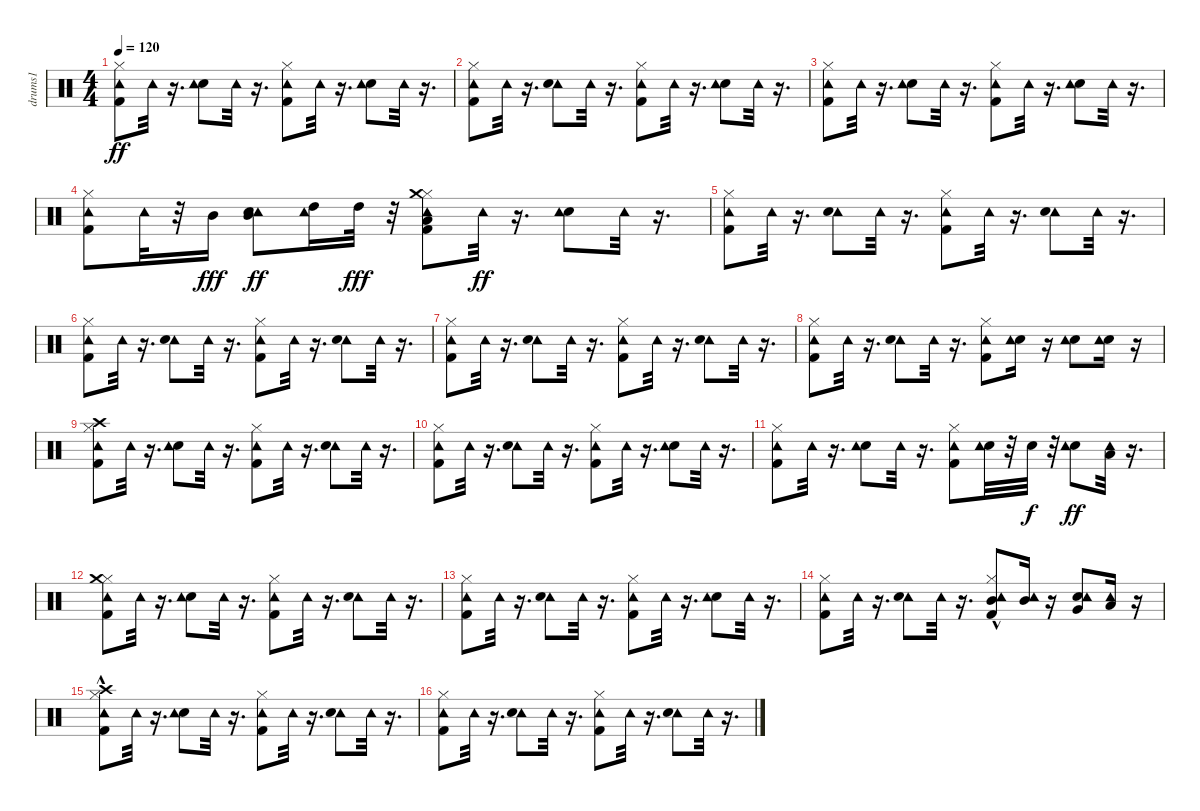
\track ("drums1" "drums1") {instrument percussion}
\staff {score}
\articulation defaults
\ts (4 4)
\tempo 120
\clef neutral
\ks c
("Kick (hit) 2" "Tambourine (hit)" "Hi-Hat (closed)").8{dy ff} "Tambourine (hit)".32 r.16{d} ("Snare (hit) 2" "Tambourine (hit)").8 "Tambourine (hit)".32 r.16{d} ("Kick (hit) 2" "Tambourine (hit)" "Hi-Hat (closed)").8 "Tambourine (hit)".32 r.16{d} ("Snare (hit) 2" "Tambourine (hit)").8 "Tambourine (hit)".32 r.16{d} |
("Tambourine (hit)" "Hi-Hat (closed)" "Kick (hit) 2").8 "Tambourine (hit)".32 r.16{d} ("Tambourine (hit)" "Snare (hit) 2").8 "Tambourine (hit)".32 r.16{d} ("Kick (hit) 2" "Tambourine (hit)" "Hi-Hat (closed)").8 "Tambourine (hit)".32 r.16{d} ("Snare (hit) 2" "Tambourine (hit)").8 "Tambourine (hit)".32 r.16{d} |
("Kick (hit) 2" "Tambourine (hit)" "Hi-Hat (closed)").8 "Tambourine (hit)".32 r.16{d} ("Snare (hit) 2" "Tambourine (hit)").8 "Tambourine (hit)".32 r.16{d} ("Kick (hit) 2" "Tambourine (hit)" "Hi-Hat (closed)").8 "Tambourine (hit)".32 r.16{d} ("Snare (hit) 2" "Tambourine (hit)").8 "Tambourine (hit)".32 r.16{d} |
("Kick (hit) 2" "Tambourine (hit)" "Hi-Hat (closed)").8 "Tambourine (hit)".32 r.32 "Mid Tom (hit)".16{dy fff} ("Mid Tom (hit)" "Tambourine (hit)" "Snare (hit) 2").8{dy ff} ("High Tom (hit)" "Tambourine (hit)").16 "High Tom (hit)".32{dy fff} r.32 ("Low Floor Tom (hit)" "Kick (hit) 2" "Tambourine (hit)" "Hi-Hat (closed)" "Crash medium (hit)").8 "Tambourine (hit)".32{dy ff} r.16{d} ("Snare (hit) 2" "Tambourine (hit)").8 "Tambourine (hit)".32 r.16{d} |
("Tambourine (hit)" "Hi-Hat (closed)" "Kick (hit) 2").8 "Tambourine (hit)".32 r.16{d} ("Tambourine (hit)" "Snare (hit) 2").8 "Tambourine (hit)".32 r.16{d} ("Tambourine (hit)" "Hi-Hat (closed)" "Kick (hit) 2").8 "Tambourine (hit)".32 r.16{d} ("Tambourine (hit)" "Snare (hit) 2").8 "Tambourine (hit)".32 r.16{d} |
("Tambourine (hit)" "Hi-Hat (closed)" "Kick (hit) 2").8 "Tambourine (hit)".32 r.16{d} ("Tambourine (hit)" "Snare (hit) 2").8 "Tambourine (hit)".32 r.16{d} ("Tambourine (hit)" "Hi-Hat (closed)" "Kick (hit) 2").8 "Tambourine (hit)".32 r.16{d} ("Tambourine (hit)" "Snare (hit) 2").8 "Tambourine (hit)".32 r.16{d} |
("Tambourine (hit)" "Hi-Hat (closed)" "Kick (hit) 2").8 "Tambourine (hit)".32 r.16{d} ("Tambourine (hit)" "Snare (hit) 2").8 "Tambourine (hit)".32 r.16{d} ("Tambourine (hit)" "Hi-Hat (closed)" "Kick (hit) 2").8 "Tambourine (hit)".32 r.16{d} ("Tambourine (hit)" "Snare (hit) 2").8 "Tambourine (hit)".32 r.16{d} |
("Tambourine (hit)" "Hi-Hat (closed)" "Kick (hit) 2").8 "Tambourine (hit)".32 r.16{d} ("Tambourine (hit)" "Snare (hit) 2").8 "Tambourine (hit)".32 r.16{d} ("Kick (hit) 2" "Tambourine (hit)" "Hi-Hat (closed)").8 ("Snare (hit) 2" "Tambourine (hit)").16 r.16 ("Snare (hit) 2" "Tambourine (hit)").8 ("Snare (hit) 2" "Tambourine (hit)").16 r.16 |
("Kick (hit) 2" "Tambourine (hit)" "Hi-Hat (closed)" "Crash high (hit)").8 "Tambourine (hit)".32 r.16{d} ("Snare (hit) 2" "Tambourine (hit)").8 "Tambourine (hit)".32 r.16{d} ("Tambourine (hit)" "Hi-Hat (closed)" "Kick (hit) 2").8 "Tambourine (hit)".32 r.16{d} ("Tambourine (hit)" "Snare (hit) 2").8 "Tambourine (hit)".32 r.16{d} |
("Tambourine (hit)" "Hi-Hat (closed)" "Kick (hit) 2").8 "Tambourine (hit)".32 r.16{d} ("Tambourine (hit)" "Snare (hit) 2").8 "Tambourine (hit)".32 r.16{d} ("Tambourine (hit)" "Hi-Hat (closed)" "Kick (hit) 2").8 "Tambourine (hit)".32 r.16{d} ("Snare (hit) 2" "Tambourine (hit)").8 "Tambourine (hit)".32 r.16{d} |
("Kick (hit) 2" "Tambourine (hit)" "Hi-Hat (closed)").8 "Tambourine (hit)".32 r.16{d} ("Snare (hit) 2" "Tambourine (hit)").8 "Tambourine (hit)".32 r.16{d} ("Kick (hit) 2" "Tambourine (hit)" "Hi-Hat (closed)").8 ("Snare (hit) 2" "Tambourine (hit)").32 r.32 "Snare (hit) 2".32{dy f} r.32 ("Snare (hit) 2" "Tambourine (hit)").8{dy ff} ("Low Floor Tom (hit)" "Tambourine (hit)").32 r.16{d} |
("Kick (hit) 2" "Tambourine (hit)" "Hi-Hat (closed)" "Crash medium (hit)").8 "Tambourine (hit)".32 r.16{d} ("Snare (hit) 2" "Tambourine (hit)").8 "Tambourine (hit)".32 r.16{d} ("Tambourine (hit)" "Hi-Hat (closed)" "Kick (hit) 2").8 "Tambourine (hit)".32 r.16{d} ("Tambourine (hit)" "Snare (hit) 2").8 "Tambourine (hit)".32 r.16{d} |
("Kick (hit) 2" "Tambourine (hit)" "Hi-Hat (closed)").8 "Tambourine (hit)".32 r.16{d} ("Tambourine (hit)" "Snare (hit) 2").8 "Tambourine (hit)".32 r.16{d} ("Tambourine (hit)" "Hi-Hat (closed)" "Kick (hit) 2").8 "Tambourine (hit)".32 r.16{d} ("Snare (hit) 2" "Tambourine (hit)").8 "Tambourine (hit)".32 r.16{d} |
("Tambourine (hit)" "Hi-Hat (closed)" "Kick (hit) 2").8 "Tambourine (hit)".32 r.16{d} ("Tambourine (hit)" "Snare (hit) 2").8 "Tambourine (hit)".32 r.16{d} ("Mid Tom (hit)"{hac} "Kick (hit) 2" "Tambourine (hit)" "Hi-Hat (closed)").8 ("Mid Tom (hit)" "Tambourine (hit)").16 r.16 ("Very Low Tom (hit)" "Snare (hit) 2" "Tambourine (hit)").8 ("Low Floor Tom (hit)" "Tambourine (hit)").16 r.16 |
("Crash high (hit)"{hac} "Kick (hit) 2" "Tambourine (hit)" "Hi-Hat (closed)").8 "Tambourine (hit)".32 r.16{d} ("Snare (hit) 2" "Tambourine (hit)").8 "Tambourine (hit)".32 r.16{d} ("Kick (hit) 2" "Tambourine (hit)" "Hi-Hat (closed)").8 "Tambourine (hit)".32 r.16{d} ("Tambourine (hit)" "Snare (hit) 2").8 "Tambourine (hit)".32 r.16{d} |
("Tambourine (hit)" "Hi-Hat (closed)" "Kick (hit) 2").8 "Tambourine (hit)".32 r.16{d} ("Tambourine (hit)" "Snare (hit) 2").8 "Tambourine (hit)".32 r.16{d} ("Tambourine (hit)" "Hi-Hat (closed)" "Kick (hit) 2").8 "Tambourine (hit)".32 r.16{d} ("Tambourine (hit)" "Snare (hit) 2").8 "Tambourine (hit)".32 r.16{d}
